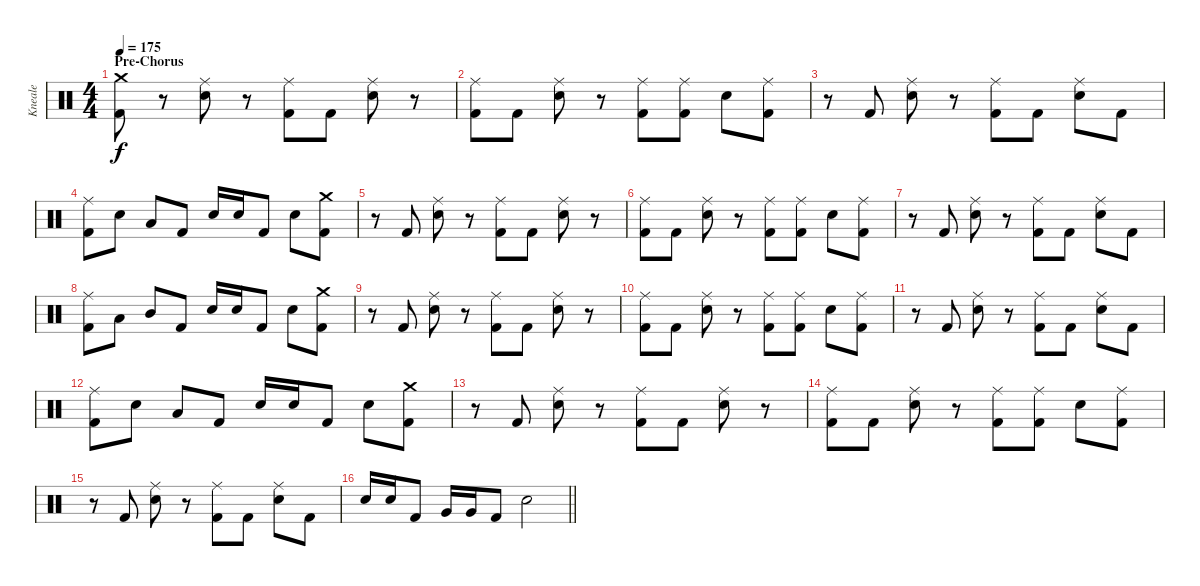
\track ("Kneale" "Kneale") {instrument percussion}
\staff {score}
\articulation defaults
\ts (4 4)
\section ("" "Pre-Chorus")
\tempo 175
\clef neutral
\ks c
("Crash medium (hit)" "Kick (hit) 2").8{dy f} r.8 ("Ride (middle)" "Electric Snare (hit)").8 r.8 ("Ride (middle)" "Kick (hit) 2").8 "Kick (hit) 2".8 ("Ride (middle)" "Electric Snare (hit)").8 r.8 |
("Ride (middle)" "Kick (hit) 2").8 "Kick (hit) 2".8 ("Ride (middle)" "Electric Snare (hit)").8 r.8 ("Ride (middle)" "Kick (hit) 2").8 ("Ride (middle)" "Kick (hit) 2").8 "Electric Snare (hit)".8 ("Ride (middle)" "Kick (hit) 2").8 |
r.8 "Kick (hit) 2".8 ("Ride (middle)" "Electric Snare (hit)").8 r.8 ("Ride (middle)" "Kick (hit) 2").8 "Kick (hit) 2".8 ("Ride (middle)" "Electric Snare (hit)").8 "Kick (hit) 2".8 |
("Ride (middle)" "Kick (hit) 2").8 "Electric Snare (hit)".8 "Low Tom (hit)".8 "Kick (hit) 2".8 "Electric Snare (hit)".16 "Electric Snare (hit)".16 "Kick (hit) 2".8 "Electric Snare (hit)".8 ("Crash medium (hit)" "Kick (hit) 2").8 |
r.8 "Kick (hit) 2".8 ("Ride (middle)" "Electric Snare (hit)").8 r.8 ("Ride (middle)" "Kick (hit) 2").8 "Kick (hit) 2".8 ("Ride (middle)" "Electric Snare (hit)").8 r.8 |
("Ride (middle)" "Kick (hit) 2").8 "Kick (hit) 2".8 ("Ride (middle)" "Electric Snare (hit)").8 r.8 ("Ride (middle)" "Kick (hit) 2").8 ("Ride (middle)" "Kick (hit) 2").8 "Electric Snare (hit)".8 ("Ride (middle)" "Kick (hit) 2").8 |
r.8 "Kick (hit) 2".8 ("Ride (middle)" "Electric Snare (hit)").8 r.8 ("Ride (middle)" "Kick (hit) 2").8 "Kick (hit) 2".8 ("Ride (middle)" "Electric Snare (hit)").8 "Kick (hit) 2".8 |
("Ride (middle)" "Kick (hit) 2").8 "Low Tom (hit)".8 "Mid Tom (hit)".8 "Kick (hit) 2".8 "Electric Snare (hit)".16 "Electric Snare (hit)".16 "Kick (hit) 2".8 "Electric Snare (hit)".8 ("Crash medium (hit)" "Kick (hit) 2").8 |
r.8 "Kick (hit) 2".8 ("Ride (middle)" "Electric Snare (hit)").8 r.8 ("Ride (middle)" "Kick (hit) 2").8 "Kick (hit) 2".8 ("Ride (middle)" "Electric Snare (hit)").8 r.8 |
("Ride (middle)" "Kick (hit) 2").8 "Kick (hit) 2".8 ("Ride (middle)" "Electric Snare (hit)").8 r.8 ("Ride (middle)" "Kick (hit) 2").8 ("Ride (middle)" "Kick (hit) 2").8 "Electric Snare (hit)".8 ("Ride (middle)" "Kick (hit) 2").8 |
r.8 "Kick (hit) 2".8 ("Ride (middle)" "Electric Snare (hit)").8 r.8 ("Ride (middle)" "Kick (hit) 2").8 "Kick (hit) 2".8 ("Ride (middle)" "Electric Snare (hit)").8 "Kick (hit) 2".8 |
("Ride (middle)" "Kick (hit) 2").8 "Electric Snare (hit)".8 "Low Tom (hit)".8 "Kick (hit) 2".8 "Electric Snare (hit)".16 "Electric Snare (hit)".16 "Kick (hit) 2".8 "Electric Snare (hit)".8 ("Crash medium (hit)" "Kick (hit) 2").8 |
r.8 "Kick (hit) 2".8 ("Ride (middle)" "Electric Snare (hit)").8 r.8 ("Ride (middle)" "Kick (hit) 2").8 "Kick (hit) 2".8 ("Ride (middle)" "Electric Snare (hit)").8 r.8 |
("Ride (middle)" "Kick (hit) 2").8 "Kick (hit) 2".8 ("Ride (middle)" "Electric Snare (hit)").8 r.8 ("Ride (middle)" "Kick (hit) 2").8 ("Ride (middle)" "Kick (hit) 2").8 "Electric Snare (hit)".8 ("Ride (middle)" "Kick (hit) 2").8 |
r.8 "Kick (hit) 2".8 ("Ride (middle)" "Electric Snare (hit)").8 r.8 ("Ride (middle)" "Kick (hit) 2").8 "Kick (hit) 2".8 ("Ride (middle)" "Electric Snare (hit)").8 "Kick (hit) 2".8 |
\barLineRight lightlight "Electric Snare (hit)".16 "Electric Snare (hit)".16 "Kick (hit) 2".8 "Very Low Tom (hit)".16 "Very Low Tom (hit)".16 "Kick (hit) 2".8 "Electric Snare (hit)".2
